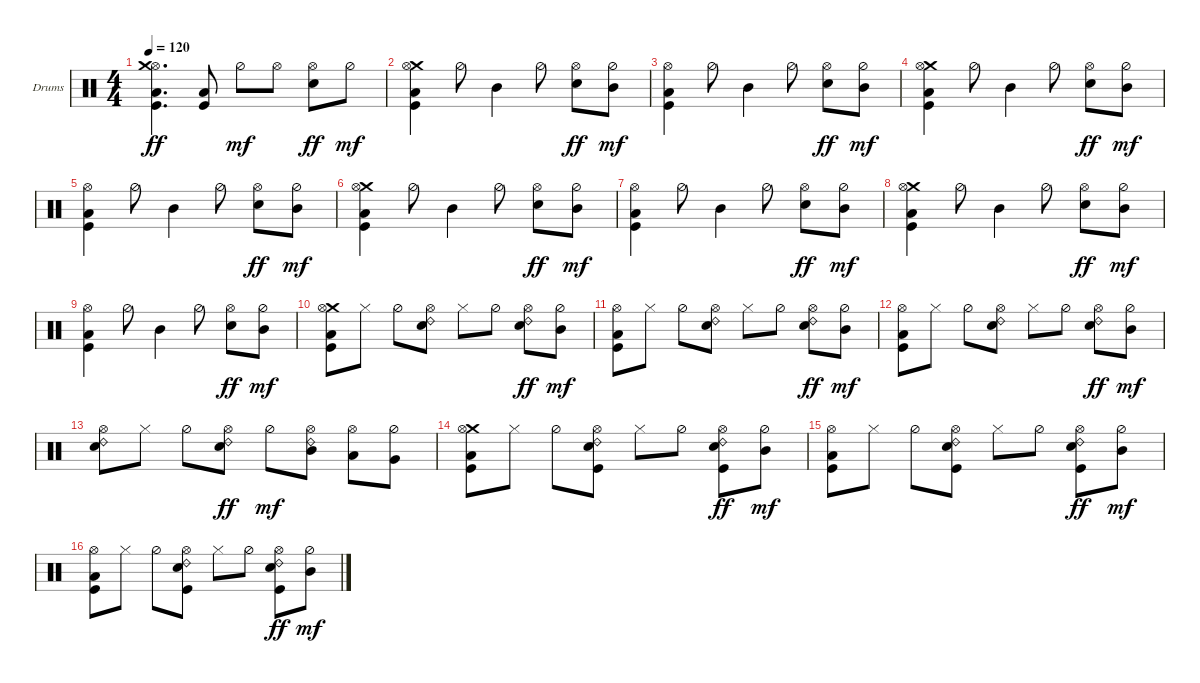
\defaultSystemsLayout 4
\bracketExtendMode groupsimilarinstruments
\firstSystemTrackNameOrientation horizontal
\otherSystemsTrackNameOrientation horizontal
\track ("Drums" "Drums") {instrument percussion}
\staff {score}
\articulation defaults
\ts (4 4)
\tempo 120
\clef neutral
\ks c
("Kick (hit)" "Low Tom (hit)" "Hi-Hat (open)" "Crash medium (hit)").4{d dy ff} ("Kick (hit)" "Low Tom (hit)").8 "Hi-Hat (half)".8{dy mf} "Hi-Hat (open)".8 ("Hi-Hat (open)" "Snare (hit) 2").8{dy ff} "Hi-Hat (half)".8{dy mf} |
("Kick (hit)" "Crash medium (hit)" "Hi-Hat (open)" "Low Tom (hit)").4 "Hi-Hat (half)".8 "Mid Tom (hit)".4 "Hi-Hat (half)".8 ("Snare (hit) 2" "Hi-Hat (open)").8{dy ff} ("Hi-Hat (half)" "Mid Tom (hit)").8{dy mf} |
("Kick (hit)" "Hi-Hat (open)" "Low Tom (hit)").4 "Hi-Hat (half)".8 "Mid Tom (hit)".4 "Hi-Hat (half)".8 ("Snare (hit) 2" "Hi-Hat (open)").8{dy ff} ("Hi-Hat (half)" "Mid Tom (hit)").8{dy mf} |
("Kick (hit)" "Crash medium (hit)" "Hi-Hat (open)" "Low Tom (hit)").4 "Hi-Hat (half)".8 "Mid Tom (hit)".4 "Hi-Hat (half)".8 ("Snare (hit) 2" "Hi-Hat (open)").8{dy ff} ("Hi-Hat (half)" "Mid Tom (hit)").8{dy mf} |
("Kick (hit)" "Hi-Hat (open)" "Low Tom (hit)").4 "Hi-Hat (half)".8 "Mid Tom (hit)".4 "Hi-Hat (half)".8 ("Snare (hit) 2" "Hi-Hat (open)").8{dy ff} ("Hi-Hat (half)" "Mid Tom (hit)").8{dy mf} |
("Kick (hit)" "Crash medium (hit)" "Hi-Hat (open)" "Low Tom (hit)").4 "Hi-Hat (half)".8 "Mid Tom (hit)".4 "Hi-Hat (half)".8 ("Snare (hit) 2" "Hi-Hat (open)").8{dy ff} ("Hi-Hat (half)" "Mid Tom (hit)").8{dy mf} |
("Kick (hit)" "Hi-Hat (open)" "Low Tom (hit)").4 "Hi-Hat (half)".8 "Mid Tom (hit)".4 "Hi-Hat (half)".8 ("Snare (hit) 2" "Hi-Hat (open)").8{dy ff} ("Hi-Hat (half)" "Mid Tom (hit)").8{dy mf} |
("Kick (hit)" "Crash medium (hit)" "Hi-Hat (open)" "Low Tom (hit)").4 "Hi-Hat (half)".8 "Mid Tom (hit)".4 "Hi-Hat (half)".8 ("Snare (hit) 2" "Hi-Hat (open)").8{dy ff} ("Hi-Hat (half)" "Mid Tom (hit)").8{dy mf} |
("Kick (hit)" "Hi-Hat (open)" "Low Tom (hit)").4 "Hi-Hat (half)".8 "Mid Tom (hit)".4 "Hi-Hat (half)".8 ("Snare (hit) 2" "Hi-Hat (open)").8{dy ff} ("Hi-Hat (half)" "Mid Tom (hit)").8{dy mf} |
("Kick (hit)" "Crash medium (hit)" "Hi-Hat (open)" "Low Tom (hit)").8 "Hi-Hat (closed)".8 "Hi-Hat (half)".8 ("Hi-Hat (open)" "Snare (hit) 2" "Ride (bell) 2").8 "Hi-Hat (closed)".8 "Hi-Hat (half)".8 ("Snare (hit) 2" "Hi-Hat (open)" "Ride (bell) 2").8{dy ff} ("Hi-Hat (half)" "Mid Tom (hit)").8{dy mf} |
("Kick (hit)" "Hi-Hat (open)" "Low Tom (hit)").8 "Hi-Hat (closed)".8 "Hi-Hat (half)".8 ("Hi-Hat (open)" "Snare (hit) 2" "Ride (bell) 2").8 "Hi-Hat (closed)".8 "Hi-Hat (half)".8 ("Snare (hit) 2" "Hi-Hat (open)" "Ride (bell) 2").8{dy ff} ("Hi-Hat (half)" "Mid Tom (hit)").8{dy mf} |
("Kick (hit)" "Hi-Hat (open)" "Low Tom (hit)").8 "Hi-Hat (closed)".8 "Hi-Hat (half)".8 ("Hi-Hat (open)" "Snare (hit) 2" "Ride (bell) 2").8 "Hi-Hat (closed)".8 "Hi-Hat (half)".8 ("Snare (hit) 2" "Hi-Hat (open)" "Ride (bell) 2").8{dy ff} ("Hi-Hat (half)" "Mid Tom (hit)").8{dy mf} |
("Hi-Hat (open)" "Snare (hit) 2" "Ride (bell) 2").8 "Hi-Hat (closed)".8 "Hi-Hat (half)".8 ("Snare (hit) 2" "Hi-Hat (open)" "Ride (bell) 2").8{dy ff} "Hi-Hat (half)".8{dy mf} ("Mid Tom (hit)" "Hi-Hat (open)" "Ride (bell) 2").8 ("Low Tom (hit)" "Hi-Hat (open)").8 ("Very Low Tom (hit)" "Hi-Hat (half)").8 |
("Kick (hit)" "Crash medium (hit)" "Hi-Hat (open)" "Low Tom (hit)").8 "Hi-Hat (closed)".8 "Hi-Hat (half)".8 ("Hi-Hat (open)" "Snare (hit) 2" "Ride (bell) 2" "Kick (hit)").8 "Hi-Hat (closed)".8 "Hi-Hat (half)".8 ("Snare (hit) 2" "Hi-Hat (open)" "Ride (bell) 2" "Kick (hit)").8{dy ff} ("Hi-Hat (half)" "Mid Tom (hit)").8{dy mf} |
("Kick (hit)" "Hi-Hat (open)" "Low Tom (hit)").8 "Hi-Hat (closed)".8 "Hi-Hat (half)".8 ("Hi-Hat (open)" "Snare (hit) 2" "Ride (bell) 2" "Kick (hit)").8 "Hi-Hat (closed)".8 "Hi-Hat (half)".8 ("Snare (hit) 2" "Hi-Hat (open)" "Ride (bell) 2" "Kick (hit)").8{dy ff} ("Hi-Hat (half)" "Mid Tom (hit)").8{dy mf} |
("Kick (hit)" "Hi-Hat (open)" "Low Tom (hit)").8 "Hi-Hat (closed)".8 "Hi-Hat (half)".8 ("Hi-Hat (open)" "Snare (hit) 2" "Ride (bell) 2" "Kick (hit)").8 "Hi-Hat (closed)".8 "Hi-Hat (half)".8 ("Snare (hit) 2" "Hi-Hat (open)" "Ride (bell) 2" "Kick (hit)").8{dy ff} ("Hi-Hat (half)" "Mid Tom (hit)").8{dy mf}
